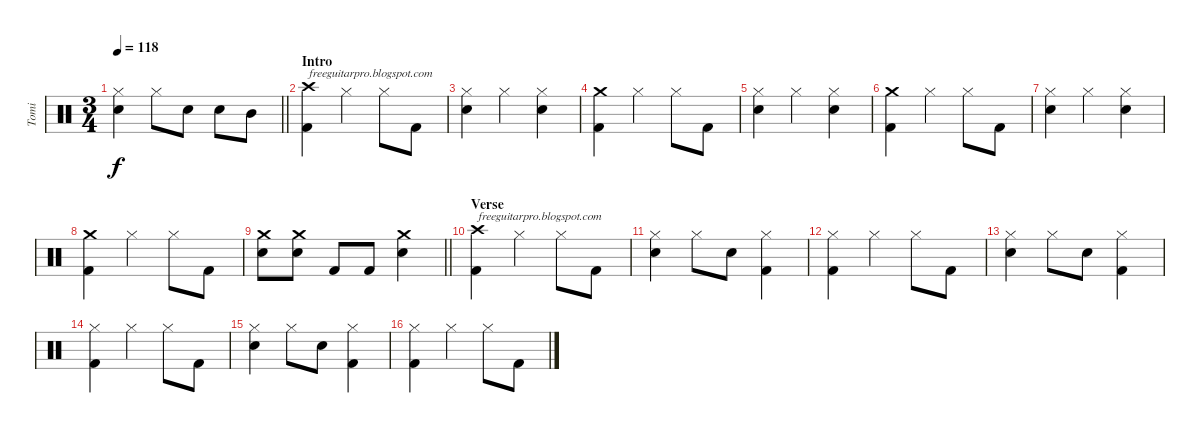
\track ("Tomi" "Tomi") {instrument percussion}
\staff {score}
\articulation defaults
\ts (3 4)
\tempo 118
\clef neutral
\barLineRight lightlight
\ks c
("Hi-Hat (closed)" "Electric Snare (hit)").4{dy f} "Hi-Hat (closed)".8 "Electric Snare (hit)".8 "Electric Snare (hit)".8 "Mid Tom (hit)".8 |
\section ("" "Intro")
("Crash high (hit)" "Kick (hit) 2").4{txt "freeguitarpro.blogspot.com"} "Hi-Hat (closed)".4 "Hi-Hat (closed)".8 "Kick (hit) 2".8 |
("Hi-Hat (closed)" "Electric Snare (hit)").4 "Hi-Hat (closed)".4 ("Hi-Hat (closed)" "Electric Snare (hit)").4 |
("Crash medium (hit)" "Kick (hit) 2").4 "Hi-Hat (closed)".4 "Hi-Hat (closed)".8 "Kick (hit) 2".8 |
("Hi-Hat (closed)" "Electric Snare (hit)").4 "Hi-Hat (closed)".4 ("Hi-Hat (closed)" "Electric Snare (hit)").4 |
("Crash medium (hit)" "Kick (hit) 2").4 "Hi-Hat (closed)".4 "Hi-Hat (closed)".8 "Kick (hit) 2".8 |
("Hi-Hat (closed)" "Electric Snare (hit)").4 "Hi-Hat (closed)".4 ("Hi-Hat (closed)" "Electric Snare (hit)").4 |
("Crash medium (hit)" "Kick (hit) 2").4 "Hi-Hat (closed)".4 "Hi-Hat (closed)".8 "Kick (hit) 2".8 |
\barLineRight lightlight
("Crash medium (hit)" "Electric Snare (hit)").8 ("Crash medium (hit)" "Electric Snare (hit)").8 "Kick (hit) 2".8 "Kick (hit) 2".8 ("Crash medium (hit)" "Electric Snare (hit)").4 |
\section ("" "Verse")
("Crash high (hit)" "Kick (hit) 2").4{txt "freeguitarpro.blogspot.com"} "Hi-Hat (closed)".4 "Hi-Hat (closed)".8 "Kick (hit) 2".8 |
("Hi-Hat (closed)" "Electric Snare (hit)").4 "Hi-Hat (closed)".8 "Electric Snare (hit)".8 ("Hi-Hat (closed)" "Kick (hit) 2").4 |
("Hi-Hat (closed)" "Kick (hit) 2").4 "Hi-Hat (closed)".4 "Hi-Hat (closed)".8 "Kick (hit) 2".8 |
("Hi-Hat (closed)" "Electric Snare (hit)").4 "Hi-Hat (closed)".8 "Electric Snare (hit)".8 ("Hi-Hat (closed)" "Kick (hit) 2").4 |
("Hi-Hat (closed)" "Kick (hit) 2").4 "Hi-Hat (closed)".4 "Hi-Hat (closed)".8 "Kick (hit) 2".8 |
("Hi-Hat (closed)" "Electric Snare (hit)").4 "Hi-Hat (closed)".8 "Electric Snare (hit)".8 ("Hi-Hat (closed)" "Kick (hit) 2").4 |
("Hi-Hat (closed)" "Kick (hit) 2").4 "Hi-Hat (closed)".4 "Hi-Hat (closed)".8 "Kick (hit) 2".8
